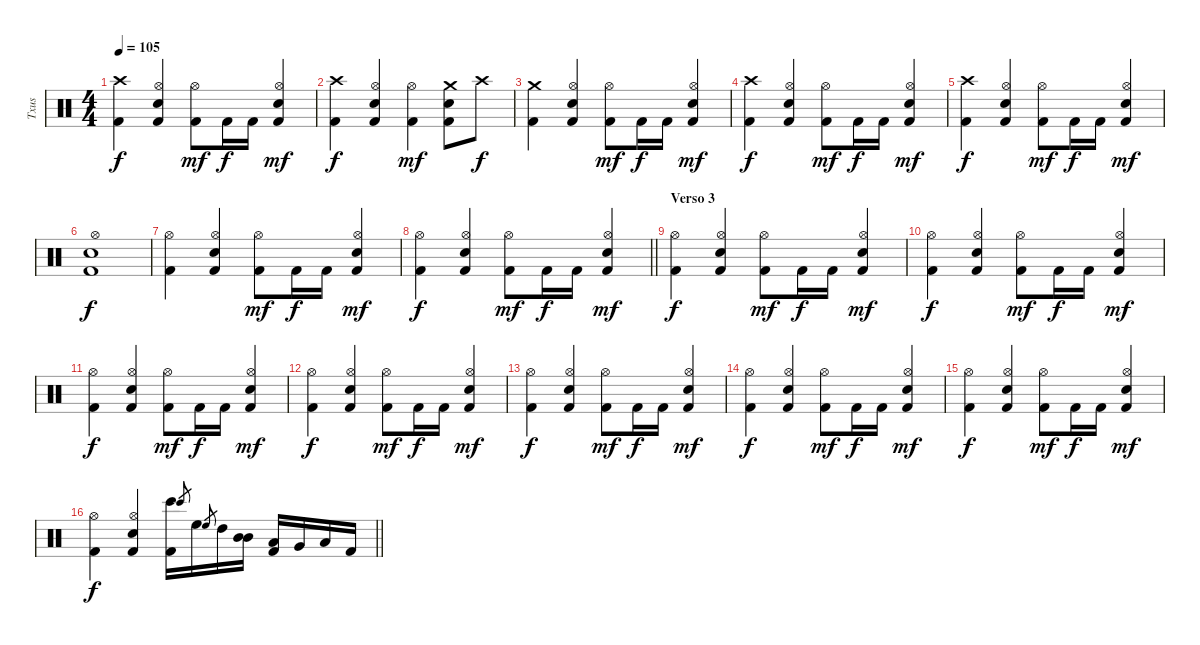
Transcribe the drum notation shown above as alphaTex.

\track ("Txus" "Txus") {instrument percussion}
\staff {score}
\articulation defaults
\ts (4 4)
\tempo 105
\clef neutral
\ks c
("Crash high (hit)" "Kick (hit) 2").4{dy f} ("Hi-Hat (open)" "Electric Snare (hit)" "Kick (hit) 2").4 ("Hi-Hat (open)" "Kick (hit) 2").8{dy mf} "Kick (hit) 2".16{dy f} "Kick (hit) 2".16 ("Hi-Hat (open)" "Electric Snare (hit)" "Kick (hit) 2").4{dy mf} |
("Crash high (hit)" "Kick (hit) 2").4{dy f} ("Hi-Hat (open)" "Electric Snare (hit)" "Kick (hit) 2").4 ("Hi-Hat (open)" "Kick (hit) 2").4{dy mf} ("Crash medium (hit)" "Electric Snare (hit)" "Kick (hit) 2").8 "Crash high (hit)".8{dy f} |
("Crash medium (hit)" "Kick (hit) 2").4 ("Hi-Hat (open)" "Electric Snare (hit)" "Kick (hit) 2").4 ("Hi-Hat (open)" "Kick (hit) 2").8{dy mf} "Kick (hit) 2".16{dy f} "Kick (hit) 2".16 ("Hi-Hat (open)" "Electric Snare (hit)" "Kick (hit) 2").4{dy mf} |
("Crash high (hit)" "Kick (hit) 2").4{dy f} ("Hi-Hat (open)" "Electric Snare (hit)" "Kick (hit) 2").4 ("Hi-Hat (open)" "Kick (hit) 2").8{dy mf} "Kick (hit) 2".16{dy f} "Kick (hit) 2".16 ("Hi-Hat (open)" "Electric Snare (hit)" "Kick (hit) 2").4{dy mf} |
("Crash high (hit)" "Kick (hit) 2").4{dy f} ("Hi-Hat (open)" "Electric Snare (hit)" "Kick (hit) 2").4 ("Hi-Hat (open)" "Kick (hit) 2").8{dy mf} "Kick (hit) 2".16{dy f} "Kick (hit) 2".16 ("Hi-Hat (open)" "Electric Snare (hit)" "Kick (hit) 2").4{dy mf} |
("Hi-Hat (open)" "Electric Snare (hit)" "Kick (hit) 2").1{dy f} |
("Hi-Hat (open)" "Kick (hit) 2").4 ("Hi-Hat (open)" "Electric Snare (hit)" "Kick (hit) 2").4 ("Hi-Hat (open)" "Kick (hit) 2").8{dy mf} "Kick (hit) 2".16{dy f} "Kick (hit) 2".16 ("Hi-Hat (open)" "Electric Snare (hit)" "Kick (hit) 2").4{dy mf} |
\barLineRight lightlight
("Hi-Hat (open)" "Kick (hit) 2").4{dy f} ("Hi-Hat (open)" "Electric Snare (hit)" "Kick (hit) 2").4 ("Hi-Hat (open)" "Kick (hit) 2").8{dy mf} "Kick (hit) 2".16{dy f} "Kick (hit) 2".16 ("Hi-Hat (open)" "Electric Snare (hit)" "Kick (hit) 2").4{dy mf} |
\section ("" "Verso 3")
("Hi-Hat (open)" "Kick (hit) 2").4{dy f} ("Hi-Hat (open)" "Electric Snare (hit)" "Kick (hit) 2").4 ("Hi-Hat (open)" "Kick (hit) 2").8{dy mf} "Kick (hit) 2".16{dy f} "Kick (hit) 2".16 ("Hi-Hat (open)" "Electric Snare (hit)" "Kick (hit) 2").4{dy mf} |
("Hi-Hat (open)" "Kick (hit) 2").4{dy f} ("Hi-Hat (open)" "Electric Snare (hit)" "Kick (hit) 2").4 ("Hi-Hat (open)" "Kick (hit) 2").8{dy mf} "Kick (hit) 2".16{dy f} "Kick (hit) 2".16 ("Hi-Hat (open)" "Electric Snare (hit)" "Kick (hit) 2").4{dy mf} |
("Hi-Hat (open)" "Kick (hit) 2").4{dy f} ("Hi-Hat (open)" "Electric Snare (hit)" "Kick (hit) 2").4 ("Hi-Hat (open)" "Kick (hit) 2").8{dy mf} "Kick (hit) 2".16{dy f} "Kick (hit) 2".16 ("Hi-Hat (open)" "Electric Snare (hit)" "Kick (hit) 2").4{dy mf} |
("Hi-Hat (open)" "Kick (hit) 2").4{dy f} ("Hi-Hat (open)" "Electric Snare (hit)" "Kick (hit) 2").4 ("Hi-Hat (open)" "Kick (hit) 2").8{dy mf} "Kick (hit) 2".16{dy f} "Kick (hit) 2".16 ("Hi-Hat (open)" "Electric Snare (hit)" "Kick (hit) 2").4{dy mf} |
("Hi-Hat (open)" "Kick (hit) 2").4{dy f} ("Hi-Hat (open)" "Electric Snare (hit)" "Kick (hit) 2").4 ("Hi-Hat (open)" "Kick (hit) 2").8{dy mf} "Kick (hit) 2".16{dy f} "Kick (hit) 2".16 ("Hi-Hat (open)" "Electric Snare (hit)" "Kick (hit) 2").4{dy mf} |
("Hi-Hat (open)" "Kick (hit) 2").4{dy f} ("Hi-Hat (open)" "Electric Snare (hit)" "Kick (hit) 2").4 ("Hi-Hat (open)" "Kick (hit) 2").8{dy mf} "Kick (hit) 2".16{dy f} "Kick (hit) 2".16 ("Hi-Hat (open)" "Electric Snare (hit)" "Kick (hit) 2").4{dy mf} |
("Hi-Hat (open)" "Kick (hit) 2").4{dy f} ("Hi-Hat (open)" "Electric Snare (hit)" "Kick (hit) 2").4 ("Hi-Hat (open)" "Kick (hit) 2").8{dy mf} "Kick (hit) 2".16{dy f} "Kick (hit) 2".16 ("Hi-Hat (open)" "Electric Snare (hit)" "Kick (hit) 2").4{dy mf} |
\barLineRight lightlight
("Hi-Hat (open)" "Kick (hit) 2").4{dy f} ("Hi-Hat (open)" "Electric Snare (hit)" "Kick (hit) 2").4 ("Bongo High (hit)" "Kick (hit) 2").16 "Bongo High (hit)".8{gr} "High Floor Tom (hit)".16 "High Floor Tom (hit)".8{gr} "High Tom (hit)".16 ("Mid Tom (hit)" "Mid Tom (hit)").16 ("Low Tom (hit)" "Kick (hit) 2").16 "Very Low Tom (hit)".16 "Low Floor Tom (hit)".16 "Kick (hit) 2".16
